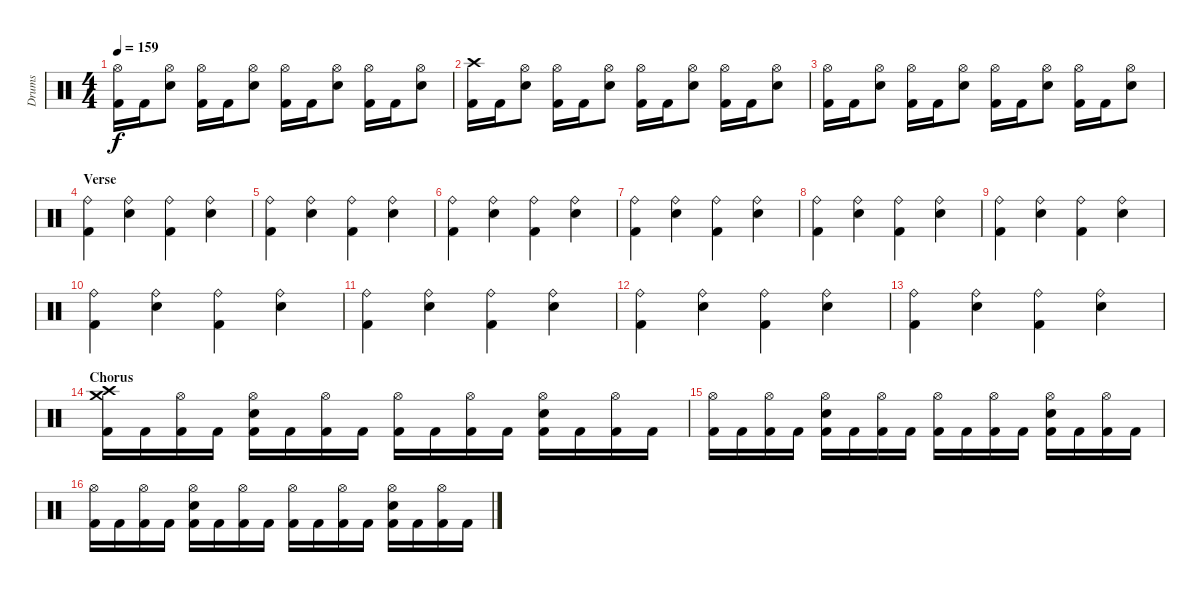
\track ("Drums" "Drums") {instrument percussion}
\staff {score}
\articulation defaults
\ts (4 4)
\tempo 159
\clef neutral
\ks c
("Hi-Hat (open)" "Kick (hit) 2").16{dy f} "Kick (hit) 2".16 ("Hi-Hat (open)" "Electric Snare (hit)").8 ("Hi-Hat (open)" "Kick (hit) 2").16 "Kick (hit) 2".16 ("Hi-Hat (open)" "Electric Snare (hit)").8 ("Hi-Hat (open)" "Kick (hit) 2").16 "Kick (hit) 2".16 ("Hi-Hat (open)" "Electric Snare (hit)").8 ("Hi-Hat (open)" "Kick (hit) 2").16 "Kick (hit) 2".16 ("Hi-Hat (open)" "Electric Snare (hit)").8 |
("Crash high (hit)" "Kick (hit) 2").16 "Kick (hit) 2".16 ("Hi-Hat (open)" "Electric Snare (hit)").8 ("Hi-Hat (open)" "Kick (hit) 2").16 "Kick (hit) 2".16 ("Hi-Hat (open)" "Electric Snare (hit)").8 ("Hi-Hat (open)" "Kick (hit) 2").16 "Kick (hit) 2".16 ("Hi-Hat (open)" "Electric Snare (hit)").8 ("Hi-Hat (open)" "Kick (hit) 2").16 "Kick (hit) 2".16 ("Hi-Hat (open)" "Electric Snare (hit)").8 |
("Hi-Hat (open)" "Kick (hit) 2").16 "Kick (hit) 2".16 ("Hi-Hat (open)" "Electric Snare (hit)").8 ("Hi-Hat (open)" "Kick (hit) 2").16 "Kick (hit) 2".16 ("Hi-Hat (open)" "Electric Snare (hit)").8 ("Hi-Hat (open)" "Kick (hit) 2").16 "Kick (hit) 2".16 ("Hi-Hat (open)" "Electric Snare (hit)").8 ("Hi-Hat (open)" "Kick (hit) 2").16 "Kick (hit) 2".16 ("Hi-Hat (open)" "Electric Snare (hit)").8 |
\section ("" "Verse")
("Ride (bell)" "Kick (hit) 2").4 ("Ride (bell)" "Electric Snare (hit)").4 ("Ride (bell)" "Kick (hit) 2").4 ("Ride (bell)" "Electric Snare (hit)").4 |
("Ride (bell)" "Kick (hit) 2").4 ("Ride (bell)" "Electric Snare (hit)").4 ("Ride (bell)" "Kick (hit) 2").4 ("Ride (bell)" "Electric Snare (hit)").4 |
("Ride (bell)" "Kick (hit) 2").4 ("Ride (bell)" "Electric Snare (hit)").4 ("Ride (bell)" "Kick (hit) 2").4 ("Ride (bell)" "Electric Snare (hit)").4 |
("Ride (bell)" "Kick (hit) 2").4 ("Ride (bell)" "Electric Snare (hit)").4 ("Ride (bell)" "Kick (hit) 2").4 ("Ride (bell)" "Electric Snare (hit)").4 |
("Ride (bell)" "Kick (hit) 2").4 ("Ride (bell)" "Electric Snare (hit)").4 ("Ride (bell)" "Kick (hit) 2").4 ("Ride (bell)" "Electric Snare (hit)").4 |
("Ride (bell)" "Kick (hit) 2").4 ("Ride (bell)" "Electric Snare (hit)").4 ("Ride (bell)" "Kick (hit) 2").4 ("Ride (bell)" "Electric Snare (hit)").4 |
("Ride (bell)" "Kick (hit) 2").4 ("Ride (bell)" "Electric Snare (hit)").4 ("Ride (bell)" "Kick (hit) 2").4 ("Ride (bell)" "Electric Snare (hit)").4 |
("Ride (bell)" "Kick (hit) 2").4 ("Ride (bell)" "Electric Snare (hit)").4 ("Ride (bell)" "Kick (hit) 2").4 ("Ride (bell)" "Electric Snare (hit)").4 |
("Ride (bell)" "Kick (hit) 2").4 ("Ride (bell)" "Electric Snare (hit)").4 ("Ride (bell)" "Kick (hit) 2").4 ("Ride (bell)" "Electric Snare (hit)").4 |
("Ride (bell)" "Kick (hit) 2").4 ("Ride (bell)" "Electric Snare (hit)").4 ("Ride (bell)" "Kick (hit) 2").4 ("Ride (bell)" "Electric Snare (hit)").4 |
\section ("" "Chorus")
("Crash high (hit)" "Crash medium (hit)" "Kick (hit) 2").16 "Kick (hit) 2".16 ("Hi-Hat (open)" "Kick (hit) 2").16 "Kick (hit) 2".16 ("Hi-Hat (open)" "Electric Snare (hit)" "Kick (hit) 2").16 "Kick (hit) 2".16 ("Hi-Hat (open)" "Kick (hit) 2").16 "Kick (hit) 2".16 ("Hi-Hat (open)" "Kick (hit) 2").16 "Kick (hit) 2".16 ("Hi-Hat (open)" "Kick (hit) 2").16 "Kick (hit) 2".16 ("Hi-Hat (open)" "Electric Snare (hit)" "Kick (hit) 2").16 "Kick (hit) 2".16 ("Hi-Hat (open)" "Kick (hit) 2").16 "Kick (hit) 2".16 |
("Hi-Hat (open)" "Kick (hit) 2").16 "Kick (hit) 2".16 ("Hi-Hat (open)" "Kick (hit) 2").16 "Kick (hit) 2".16 ("Hi-Hat (open)" "Electric Snare (hit)" "Kick (hit) 2").16 "Kick (hit) 2".16 ("Hi-Hat (open)" "Kick (hit) 2").16 "Kick (hit) 2".16 ("Hi-Hat (open)" "Kick (hit) 2").16 "Kick (hit) 2".16 ("Hi-Hat (open)" "Kick (hit) 2").16 "Kick (hit) 2".16 ("Hi-Hat (open)" "Electric Snare (hit)" "Kick (hit) 2").16 "Kick (hit) 2".16 ("Hi-Hat (open)" "Kick (hit) 2").16 "Kick (hit) 2".16 |
("Hi-Hat (open)" "Kick (hit) 2").16 "Kick (hit) 2".16 ("Hi-Hat (open)" "Kick (hit) 2").16 "Kick (hit) 2".16 ("Hi-Hat (open)" "Electric Snare (hit)" "Kick (hit) 2").16 "Kick (hit) 2".16 ("Hi-Hat (open)" "Kick (hit) 2").16 "Kick (hit) 2".16 ("Hi-Hat (open)" "Kick (hit) 2").16 "Kick (hit) 2".16 ("Hi-Hat (open)" "Kick (hit) 2").16 "Kick (hit) 2".16 ("Hi-Hat (open)" "Electric Snare (hit)" "Kick (hit) 2").16 "Kick (hit) 2".16 ("Hi-Hat (open)" "Kick (hit) 2").16 "Kick (hit) 2".16
